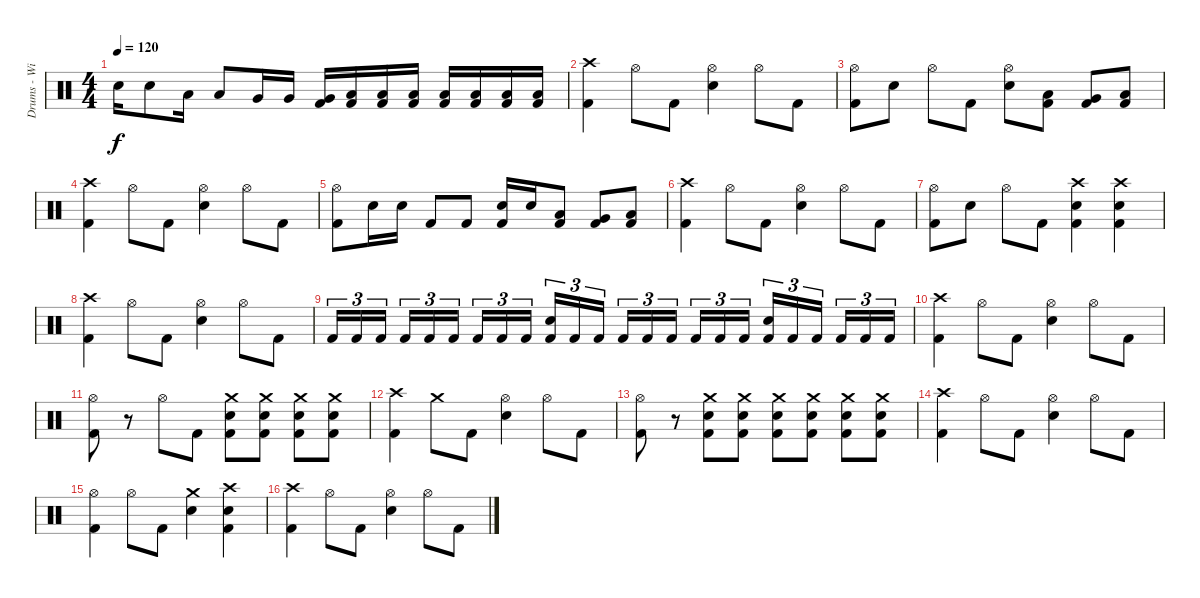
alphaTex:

\track ("Drums - Willi Wurm" "Drums - Wi") {instrument percussion}
\staff {score}
\articulation defaults
\ts (4 4)
\tempo 120
\clef neutral
\ks c "Snare (hit) 2".16{dy f} "Snare (hit) 2".8 "Low Tom (hit)".16 "Low Tom (hit)".8 "Very Low Tom (hit)".16 "Very Low Tom (hit)".16
("Very Low Tom (hit)" "Kick (hit) 2").16 ("Low Floor Tom (hit)" "Kick (hit) 2").16 ("Low Floor Tom (hit)" "Kick (hit) 2").16 ("Low Floor Tom (hit)" "Kick (hit) 2").16 ("Low Floor Tom (hit)" "Kick (hit) 2").16 ("Low Floor Tom (hit)" "Kick (hit) 2").16 ("Low Floor Tom (hit)" "Kick (hit) 2").16 ("Low Floor Tom (hit)" "Kick (hit) 2").16 |
("Crash high (hit)" "Kick (hit) 2").4 "Hi-Hat (open)".8 "Kick (hit) 2".8 ("Hi-Hat (open)" "Snare (hit) 2").4 "Hi-Hat (open)".8 "Kick (hit) 2".8 |
("Hi-Hat (open)" "Kick (hit) 2").8 "Snare (hit) 2".8 "Hi-Hat (open)".8 "Kick (hit) 2".8 ("Hi-Hat (open)" "Snare (hit) 2").8 ("Low Tom (hit)" "Kick (hit) 2").8 ("Very Low Tom (hit)" "Kick (hit) 2").8 ("Low Floor Tom (hit)" "Kick (hit) 2").8 |
("Crash high (hit)" "Kick (hit) 2").4 "Hi-Hat (open)".8 "Kick (hit) 2".8 ("Hi-Hat (open)" "Snare (hit) 2").4 "Hi-Hat (open)".8 "Kick (hit) 2".8 |
("Hi-Hat (open)" "Kick (hit) 2").8 "Snare (hit) 2".16 "Snare (hit) 2".16 "Kick (hit) 2".8 "Kick (hit) 2".8 ("Snare (hit) 2" "Kick (hit) 2").16 "Snare (hit) 2".16 ("Low Tom (hit)" "Kick (hit) 2").8 ("Very Low Tom (hit)" "Kick (hit) 2").8 ("Low Floor Tom (hit)" "Kick (hit) 2").8 |
("Crash high (hit)" "Kick (hit) 2").4 "Hi-Hat (open)".8 "Kick (hit) 2".8 ("Hi-Hat (open)" "Snare (hit) 2").4 "Hi-Hat (open)".8 "Kick (hit) 2".8 |
("Hi-Hat (open)" "Kick (hit) 2").8 "Snare (hit) 2".8 "Hi-Hat (open)".8 "Kick (hit) 2".8 ("Crash high (hit)" "Snare (hit) 2" "Kick (hit) 2").4 ("Crash high (hit)" "Snare (hit) 2" "Kick (hit) 2").4 |
("Crash high (hit)" "Kick (hit) 2").4 "Hi-Hat (open)".8 "Kick (hit) 2".8 ("Hi-Hat (open)" "Snare (hit) 2").4 "Hi-Hat (open)".8 "Kick (hit) 2".8 |
"Kick (hit) 2".16{tu (3 2)} "Kick (hit) 2".16{tu (3 2)} "Kick (hit) 2".16{tu (3 2) beam splitsecondary} "Kick (hit) 2".16{tu (3 2)} "Kick (hit) 2".16{tu (3 2)} "Kick (hit) 2".16{tu (3 2)} "Kick (hit) 2".16{tu (3 2)} "Kick (hit) 2".16{tu (3 2)} "Kick (hit) 2".16{tu (3 2) beam splitsecondary} ("Snare (hit) 2" "Kick (hit) 2").16{tu (3 2)} "Kick (hit) 2".16{tu (3 2)} "Kick (hit) 2".16{tu (3 2)} "Kick (hit) 2".16{tu (3 2)} "Kick (hit) 2".16{tu (3 2)} "Kick (hit) 2".16{tu (3 2) beam splitsecondary} "Kick (hit) 2".16{tu (3 2)} "Kick (hit) 2".16{tu (3 2)} "Kick (hit) 2".16{tu (3 2)} ("Snare (hit) 2" "Kick (hit) 2").16{tu (3 2)} "Kick (hit) 2".16{tu (3 2)} "Kick (hit) 2".16{tu (3 2) beam splitsecondary} "Kick (hit) 2".16{tu (3 2)} "Kick (hit) 2".16{tu (3 2)} "Kick (hit) 2".16{tu (3 2)} |
("Crash high (hit)" "Kick (hit) 2").4 "Hi-Hat (open)".8 "Kick (hit) 2".8 ("Hi-Hat (open)" "Snare (hit) 2").4 "Hi-Hat (open)".8 "Kick (hit) 2".8 |
("Hi-Hat (open)" "Kick (hit) 2").8 r.8 "Hi-Hat (open)".8 "Kick (hit) 2".8 ("Crash medium (hit)" "Snare (hit) 2" "Kick (hit) 2").8 ("Crash medium (hit)" "Snare (hit) 2" "Kick (hit) 2").8 ("Crash medium (hit)" "Snare (hit) 2" "Kick (hit) 2").8 ("Crash medium (hit)" "Snare (hit) 2" "Kick (hit) 2").8 |
("Crash high (hit)" "Kick (hit) 2").4 "Crash medium (hit)".8 "Kick (hit) 2".8 ("Hi-Hat (open)" "Snare (hit) 2").4 "Hi-Hat (open)".8 "Kick (hit) 2".8 |
("Hi-Hat (open)" "Kick (hit) 2").8 r.8 ("Crash medium (hit)" "Snare (hit) 2" "Kick (hit) 2").8 ("Crash medium (hit)" "Snare (hit) 2" "Kick (hit) 2").8 ("Crash medium (hit)" "Snare (hit) 2" "Kick (hit) 2").8 ("Crash medium (hit)" "Snare (hit) 2" "Kick (hit) 2").8 ("Crash medium (hit)" "Snare (hit) 2" "Kick (hit) 2").8 ("Crash medium (hit)" "Snare (hit) 2" "Kick (hit) 2").8 |
("Crash high (hit)" "Kick (hit) 2").4 "Hi-Hat (open)".8 "Kick (hit) 2".8 ("Hi-Hat (open)" "Snare (hit) 2").4 "Hi-Hat (open)".8 "Kick (hit) 2".8 |
("Hi-Hat (open)" "Kick (hit) 2").4 "Hi-Hat (open)".8 "Kick (hit) 2".8 ("Crash medium (hit)" "Snare (hit) 2").4 ("Crash high (hit)" "Snare (hit) 2" "Kick (hit) 2").4 |
("Crash high (hit)" "Kick (hit) 2").4 "Hi-Hat (open)".8 "Kick (hit) 2".8 ("Hi-Hat (open)" "Snare (hit) 2").4 "Hi-Hat (open)".8 "Kick (hit) 2".8
